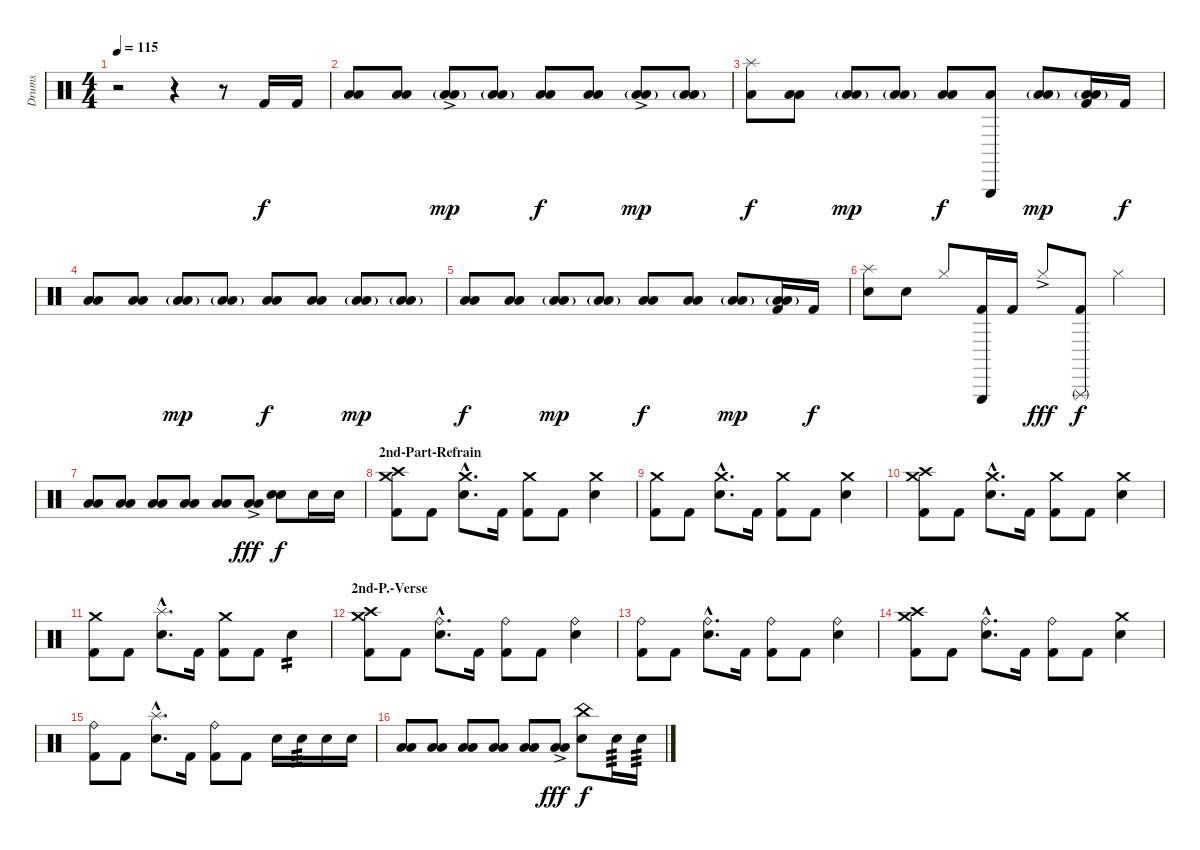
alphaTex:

\track ("Drums" "Drums") {instrument percussion}
\staff {score}
\articulation defaults
\ts (4 4)
\tempo 115
\clef neutral
\ks c
r.2{dy f} r.4 r.8 "Kick (hit) 2".16 "Kick (hit) 2".16 |
("Low Tom (hit)" "Low Floor Tom (hit)").8 ("Low Tom (hit)" "Low Floor Tom (hit)").8 ("Low Tom (hit)"{g ac} "Low Floor Tom (hit)"{g}).8{dy mp} ("Low Tom (hit)"{g} "Low Floor Tom (hit)"{g}).8 ("Low Tom (hit)" "Low Floor Tom (hit)").8{dy f} ("Low Tom (hit)" "Low Floor Tom (hit)").8 ("Low Tom (hit)"{g ac} "Low Floor Tom (hit)"{g}).8{dy mp} ("Low Tom (hit)"{g} "Low Floor Tom (hit)"{g}).8 |
("Splash (hit)" "Low Floor Tom (hit)").8{dy f} ("Low Tom (hit)" "Low Floor Tom (hit)").8 ("Low Tom (hit)"{g} "Low Floor Tom (hit)"{g}).8{dy mp} ("Low Tom (hit)"{g} "Low Floor Tom (hit)"{g}).8 ("Low Tom (hit)" "Low Floor Tom (hit)").8{dy f} ("Triangle (hit)" "Low Tom (hit)").8 ("Low Tom (hit)"{g} "Low Floor Tom (hit)"{g}).8{dy mp} ("Low Tom (hit)"{g} "Low Floor Tom (hit)"{g} "Kick (hit) 2").16 "Kick (hit) 2".16{dy f} |
("Low Tom (hit)" "Low Floor Tom (hit)").8 ("Low Tom (hit)" "Low Floor Tom (hit)").8 ("Low Tom (hit)"{g} "Low Floor Tom (hit)"{g}).8{dy mp} ("Low Tom (hit)"{g} "Low Floor Tom (hit)"{g}).8 ("Low Tom (hit)" "Low Floor Tom (hit)").8{dy f} ("Low Tom (hit)" "Low Floor Tom (hit)").8 ("Low Tom (hit)"{g} "Low Floor Tom (hit)"{g}).8{dy mp} ("Low Tom (hit)"{g} "Low Floor Tom (hit)"{g}).8 |
("Low Tom (hit)" "Low Floor Tom (hit)").8{dy f} ("Low Tom (hit)" "Low Floor Tom (hit)").8 ("Low Tom (hit)"{g} "Low Floor Tom (hit)"{g}).8{dy mp} ("Low Tom (hit)"{g} "Low Floor Tom (hit)"{g}).8 ("Low Tom (hit)" "Low Floor Tom (hit)").8{dy f} ("Low Tom (hit)" "Low Floor Tom (hit)").8 ("Low Tom (hit)"{g} "Low Floor Tom (hit)"{g}).8{dy mp} ("Low Tom (hit)"{g} "Low Floor Tom (hit)"{g} "Kick (hit) 2").16 "Kick (hit) 2".16{dy f} |
("Splash (hit)" "Snare (hit) 2").8 "Snare (hit) 2".8 "Hi-Hat (closed)".8 ("Triangle (hit)" "Kick (hit) 2").16 "Kick (hit) 2".16 "Hi-Hat (closed)"{ac}.8{dy fff} ("Triangle (rnute)" "Kick (hit) 2").8{dy f} "Hi-Hat (closed)".4 |
("Low Tom (hit)" "Low Floor Tom (hit)").8{volume 3} ("Low Tom (hit)" "Low Floor Tom (hit)").8{volume 6} ("Low Tom (hit)" "Low Floor Tom (hit)").8{volume 8} ("Low Tom (hit)" "Low Floor Tom (hit)").8{volume 10} ("Low Tom (hit)" "Low Floor Tom (hit)").8{volume 12} ("Low Tom (hit)"{ac} "Low Floor Tom (hit)"{ac}).8{dy fff volume 13} ("Snare (hit) 2" "Snare (hit) 2").8{dy f} "Snare (hit) 2".16 "Snare (hit) 2".16 |
\section ("" "2nd-Part-Refrain")
("Crash medium (hit)" "Crash high (hit)" "Kick (hit) 2").8 "Kick (hit) 2".8 ("Crash medium (hit)"{hac} "Snare (hit) 2"{hac}).8{d} "Kick (hit) 2".16 ("Crash medium (hit)" "Kick (hit) 2").8 "Kick (hit) 2".8 ("Crash medium (hit)" "Snare (hit) 2").4 |
("Crash medium (hit)" "Kick (hit) 2").8 "Kick (hit) 2".8 ("Crash medium (hit)"{hac} "Snare (hit) 2"{hac}).8{d} "Kick (hit) 2".16 ("Crash medium (hit)" "Kick (hit) 2").8 "Kick (hit) 2".8 ("Crash medium (hit)" "Snare (hit) 2").4 |
("Crash medium (hit)" "Crash high (hit)" "Kick (hit) 2").8 "Kick (hit) 2".8 ("Crash medium (hit)"{hac} "Snare (hit) 2"{hac}).8{d} "Kick (hit) 2".16 ("Crash medium (hit)" "Kick (hit) 2").8 "Kick (hit) 2".8 ("Crash medium (hit)" "Snare (hit) 2").4 |
("Crash medium (hit)" "Kick (hit) 2").8 "Kick (hit) 2".8 ("Splash (hit)"{hac} "Snare (hit) 2"{hac}).8{d} "Kick (hit) 2".16 ("Crash medium (hit)" "Kick (hit) 2").8 "Kick (hit) 2".8 "Snare (hit) 2".4{tp 2} |
\section ("" "2nd-P.-Verse")
("Crash medium (hit)" "Crash high (hit)" "Kick (hit) 2").8 "Kick (hit) 2".8 ("Ride (bell)"{hac} "Snare (hit) 2"{hac}).8{d} "Kick (hit) 2".16 ("Ride (bell)" "Kick (hit) 2").8 "Kick (hit) 2".8 ("Ride (bell)" "Snare (hit) 2").4 |
("Ride (bell)" "Kick (hit) 2").8 "Kick (hit) 2".8 ("Ride (bell)"{hac} "Snare (hit) 2"{hac}).8{d} "Kick (hit) 2".16 ("Ride (bell)" "Kick (hit) 2").8 "Kick (hit) 2".8 ("Ride (bell)" "Snare (hit) 2").4 |
("Crash medium (hit)" "Crash high (hit)" "Kick (hit) 2").8 "Kick (hit) 2".8 ("Ride (bell)"{hac} "Snare (hit) 2"{hac}).8{d} "Kick (hit) 2".16 ("Ride (bell)" "Kick (hit) 2").8 "Kick (hit) 2".8 ("Crash medium (hit)" "Snare (hit) 2").4 |
("Ride (bell)" "Kick (hit) 2").8 "Kick (hit) 2".8 ("Splash (hit)"{hac} "Snare (hit) 2"{hac}).8{d} "Kick (hit) 2".16 ("Ride (bell)" "Kick (hit) 2").8 "Kick (hit) 2".8 "Snare (hit) 2".16 "Snare (hit) 2".16{tp 3} "Snare (hit) 2".16 "Snare (hit) 2".16 |
("Low Tom (hit)" "Low Floor Tom (hit)").8{volume 3} ("Low Tom (hit)" "Low Floor Tom (hit)").8{volume 6} ("Low Tom (hit)" "Low Floor Tom (hit)").8{volume 8} ("Low Tom (hit)" "Low Floor Tom (hit)").8{volume 10} ("Low Tom (hit)" "Low Floor Tom (hit)").8{volume 12} ("Low Tom (hit)"{ac} "Low Floor Tom (hit)"{ac}).8{dy fff volume 13} ("Snare (hit) 2" "China (hit)").8{dy f} "Snare (hit) 2".16{tp 3} "Snare (hit) 2".16{tp 3}
